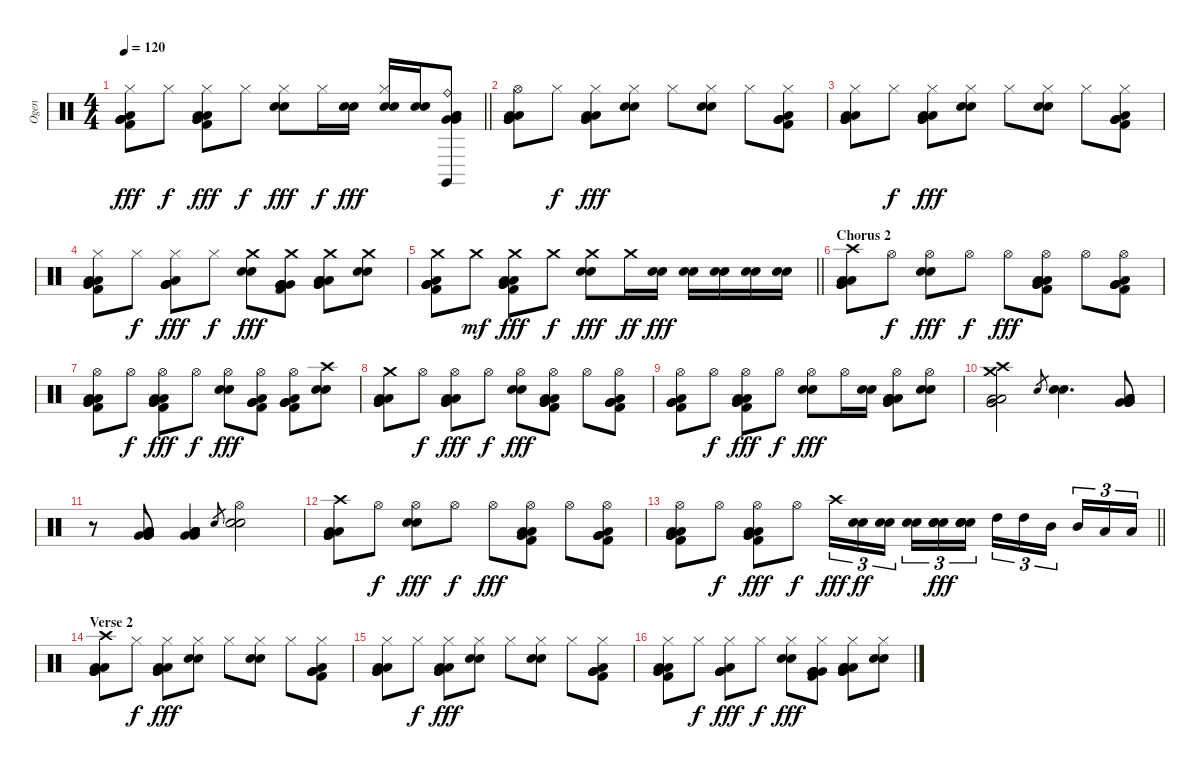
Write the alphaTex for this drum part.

\track ("Ogen" "Ogen") {instrument percussion}
\staff {score}
\articulation defaults
\ts (4 4)
\tempo 120
\clef neutral
\barLineRight lightlight
\ks c
("Hi-Hat (closed)" "Kick (hit) 2" "Very Low Tom (hit)" "Very Low Tom (hit)" "Low Floor Tom (hit)" "Very Low Tom (hit)").8{dy fff} "Hi-Hat (closed)".8{dy f} ("Hi-Hat (closed)" "Kick (hit) 2" "Very Low Tom (hit)" "Low Floor Tom (hit)" "Very Low Tom (hit)" "Low Floor Tom (hit)").8{dy fff} "Hi-Hat (closed)".8{dy f} ("Hi-Hat (closed)" "Snare (hit) 2" "Electric Snare (hit)").8{dy fff} "Hi-Hat (closed)".16{dy f} ("Snare (hit) 2" "Electric Snare (hit)").16{dy fff} ("Snare (hit) 2" "Electric Snare (hit)" "Hi-Hat (closed)").16 ("Electric Snare (hit)" "Snare (hit) 2").16 ("Ride (bell)" "Claves (hit)" "Very Low Tom (hit)" "Low Floor Tom (hit)" "Very Low Tom (hit)" "Low Floor Tom (hit)").8 |
("Hi-Hat (open)" "Very Low Tom (hit)" "Low Floor Tom (hit)" "Very Low Tom (hit)" "Low Floor Tom (hit)" "Very Low Tom (hit)").8 "Hi-Hat (closed)".8{dy f} ("Hi-Hat (closed)" "Very Low Tom (hit)" "Low Floor Tom (hit)" "Low Floor Tom (hit)" "Very Low Tom (hit)").8{dy fff} ("Hi-Hat (closed)" "Electric Snare (hit)" "Snare (hit) 2").8 "Hi-Hat (closed)".8 ("Hi-Hat (closed)" "Snare (hit) 2" "Electric Snare (hit)").8 "Hi-Hat (closed)".8 ("Hi-Hat (closed)" "Very Low Tom (hit)" "Kick (hit) 2" "Very Low Tom (hit)" "Low Floor Tom (hit)" "Very Low Tom (hit)").8 |
("Hi-Hat (closed)" "Very Low Tom (hit)" "Low Floor Tom (hit)" "Very Low Tom (hit)" "Low Floor Tom (hit)" "Very Low Tom (hit)").8 "Hi-Hat (closed)".8{dy f} ("Hi-Hat (closed)" "Very Low Tom (hit)" "Low Floor Tom (hit)" "Low Floor Tom (hit)" "Very Low Tom (hit)").8{dy fff} ("Hi-Hat (closed)" "Electric Snare (hit)" "Snare (hit) 2").8 "Hi-Hat (closed)".8 ("Hi-Hat (closed)" "Snare (hit) 2" "Electric Snare (hit)").8 "Hi-Hat (closed)".8 ("Hi-Hat (closed)" "Very Low Tom (hit)" "Kick (hit) 2" "Very Low Tom (hit)" "Low Floor Tom (hit)" "Very Low Tom (hit)").8 |
("Hi-Hat (closed)" "Very Low Tom (hit)" "Low Floor Tom (hit)" "Kick (hit) 2" "Very Low Tom (hit)" "Low Floor Tom (hit)").8 "Hi-Hat (closed)".8{dy f} ("Hi-Hat (closed)" "Very Low Tom (hit)" "Low Floor Tom (hit)" "Very Low Tom (hit)" "Very Low Tom (hit)" "Very Low Tom (hit)").8{dy fff} "Hi-Hat (closed)".8{dy f} ("Crash medium (hit)" "Snare (hit) 2" "Electric Snare (hit)").8{dy fff} ("Crash medium (hit)" "Very Low Tom (hit)" "Kick (hit) 2" "Very Low Tom (hit)" "Very Low Tom (hit)" "Very Low Tom (hit)").8 ("Crash medium (hit)" "Low Floor Tom (hit)" "Low Floor Tom (hit)" "Low Floor Tom (hit)" "Very Low Tom (hit)" "Very Low Tom (hit)").8 ("Crash medium (hit)" "Electric Snare (hit)" "Snare (hit) 2").8 |
\barLineRight lightlight
("Crash medium (hit)" "Kick (hit) 2" "Very Low Tom (hit)" "Very Low Tom (hit)" "Low Floor Tom (hit)" "Very Low Tom (hit)").8 "Crash medium (hit)".8{dy mf} ("Crash medium (hit)" "Kick (hit) 2" "Very Low Tom (hit)" "Low Floor Tom (hit)" "Very Low Tom (hit)" "Low Floor Tom (hit)").8{dy fff} "Crash medium (hit)".8{dy f} ("Crash medium (hit)" "Snare (hit) 2" "Electric Snare (hit)").8{dy fff} "Crash medium (hit)".16{dy ff} ("Snare (hit) 2" "Electric Snare (hit)").16{dy fff} ("Snare (hit) 2" "Electric Snare (hit)").16 ("Electric Snare (hit)" "Snare (hit) 2").16 ("Snare (hit) 2" "Electric Snare (hit)").16 ("Electric Snare (hit)" "Snare (hit) 2").16 |
\section ("" "Chorus 2")
("Crash high (hit)" "Very Low Tom (hit)" "Low Floor Tom (hit)" "Very Low Tom (hit)" "Low Floor Tom (hit)" "Very Low Tom (hit)").8 "Hi-Hat (open)".8{dy f} ("Hi-Hat (open)" "Electric Snare (hit)" "Snare (hit) 2").8{dy fff} "Hi-Hat (open)".8{dy f} "Hi-Hat (open)".8{dy fff} ("Hi-Hat (open)" "Very Low Tom (hit)" "Kick (hit) 2" "Low Floor Tom (hit)" "Very Low Tom (hit)" "Low Floor Tom (hit)").8 "Hi-Hat (open)".8 ("Hi-Hat (open)" "Very Low Tom (hit)" "Kick (hit) 2" "Very Low Tom (hit)" "Low Floor Tom (hit)" "Very Low Tom (hit)").8 |
("Hi-Hat (open)" "Kick (hit) 2" "Very Low Tom (hit)" "Low Floor Tom (hit)" "Very Low Tom (hit)" "Low Floor Tom (hit)").8 "Hi-Hat (open)".8{dy f} ("Hi-Hat (open)" "Kick (hit) 2" "Very Low Tom (hit)" "Low Floor Tom (hit)" "Very Low Tom (hit)" "Low Floor Tom (hit)").8{dy fff} "Hi-Hat (open)".8{dy f} ("Hi-Hat (open)" "Snare (hit) 2" "Electric Snare (hit)").8{dy fff} ("Hi-Hat (open)" "Kick (hit) 2" "Very Low Tom (hit)" "Very Low Tom (hit)" "Low Floor Tom (hit)" "Very Low Tom (hit)").8 ("Hi-Hat (open)" "Very Low Tom (hit)" "Kick (hit) 2" "Very Low Tom (hit)" "Low Floor Tom (hit)" "Very Low Tom (hit)").8 ("Crash high (hit)" "Snare (hit) 2" "Electric Snare (hit)").8 |
("Crash medium (hit)" "Very Low Tom (hit)" "Low Floor Tom (hit)" "Very Low Tom (hit)" "Low Floor Tom (hit)" "Very Low Tom (hit)").8 "Hi-Hat (open)".8{dy f} ("Hi-Hat (open)" "Very Low Tom (hit)" "Low Floor Tom (hit)" "Very Low Tom (hit)" "Low Floor Tom (hit)").8{dy fff} "Hi-Hat (open)".8{dy f} ("Hi-Hat (open)" "Snare (hit) 2" "Electric Snare (hit)").8{dy fff} ("Hi-Hat (open)" "Very Low Tom (hit)" "Kick (hit) 2" "Low Floor Tom (hit)" "Very Low Tom (hit)" "Low Floor Tom (hit)").8 "Hi-Hat (open)".8 ("Hi-Hat (open)" "Very Low Tom (hit)" "Kick (hit) 2" "Very Low Tom (hit)" "Low Floor Tom (hit)" "Very Low Tom (hit)").8 |
("Hi-Hat (open)" "Kick (hit) 2" "Very Low Tom (hit)" "Very Low Tom (hit)" "Low Floor Tom (hit)" "Very Low Tom (hit)").8 "Hi-Hat (open)".8{dy f} ("Hi-Hat (open)" "Kick (hit) 2" "Very Low Tom (hit)" "Low Floor Tom (hit)" "Very Low Tom (hit)" "Low Floor Tom (hit)").8{dy fff} "Hi-Hat (open)".8{dy f} ("Hi-Hat (open)" "Snare (hit) 2" "Electric Snare (hit)").8{dy fff} "Hi-Hat (open)".16 ("Snare (hit) 2" "Electric Snare (hit)").16 ("Low Floor Tom (hit)" "Low Floor Tom (hit)" "Low Floor Tom (hit)" "Very Low Tom (hit)" "Very Low Tom (hit)" "Hi-Hat (open)").8 ("Snare (hit) 2" "Electric Snare (hit)" "Hi-Hat (open)").8 |
("Crash high (hit)" "Crash medium (hit)" "Low Floor Tom (hit)" "Very Low Tom (hit)" "Low Floor Tom (hit)" "Very Low Tom (hit)").2 "Snare (hit) 2".8{gr} ("Snare (hit) 2" "Electric Snare (hit)").4{d} ("Very Low Tom (hit)" "Very Low Tom (hit)" "Low Floor Tom (hit)" "Very Low Tom (hit)" "Low Floor Tom (hit)").8 |
r.8 ("Very Low Tom (hit)" "Low Floor Tom (hit)" "Very Low Tom (hit)" "Low Floor Tom (hit)" "Very Low Tom (hit)" "Low Floor Tom (hit)").8 ("Low Floor Tom (hit)" "Very Low Tom (hit)" "Low Floor Tom (hit)" "Very Low Tom (hit)" "Low Floor Tom (hit)").4 "Electric Snare (hit)".8{gr} ("Electric Snare (hit)" "Snare (hit) 2" "Hi-Hat (open)").2 |
("Crash high (hit)" "Very Low Tom (hit)" "Low Floor Tom (hit)" "Very Low Tom (hit)" "Low Floor Tom (hit)" "Very Low Tom (hit)").8 "Hi-Hat (open)".8{dy f} ("Hi-Hat (open)" "Electric Snare (hit)" "Snare (hit) 2").8{dy fff} "Hi-Hat (open)".8{dy f} "Hi-Hat (open)".8{dy fff} ("Hi-Hat (open)" "Very Low Tom (hit)" "Kick (hit) 2" "Low Floor Tom (hit)" "Very Low Tom (hit)" "Low Floor Tom (hit)").8 "Hi-Hat (open)".8 ("Hi-Hat (open)" "Very Low Tom (hit)" "Kick (hit) 2" "Very Low Tom (hit)" "Low Floor Tom (hit)" "Very Low Tom (hit)").8 |
\barLineRight lightlight
("Hi-Hat (open)" "Kick (hit) 2" "Very Low Tom (hit)" "Low Floor Tom (hit)" "Very Low Tom (hit)" "Low Floor Tom (hit)").8 "Hi-Hat (open)".8{dy f} ("Hi-Hat (open)" "Kick (hit) 2" "Very Low Tom (hit)" "Low Floor Tom (hit)" "Very Low Tom (hit)" "Low Floor Tom (hit)").8{dy fff} "Hi-Hat (open)".8{dy f} "Crash high (hit)".16{tu (3 2) dy fff} ("Snare (hit) 2" "Electric Snare (hit)").16{tu (3 2) dy ff} ("Electric Snare (hit)" "Snare (hit) 2").16{tu (3 2) beam splitsecondary} ("Snare (hit) 2" "Electric Snare (hit)").16{tu (3 2)} ("Electric Snare (hit)" "Electric Snare (hit)" "Snare (hit) 2" "Snare (hit) 2").16{tu (3 2) dy fff} ("Electric Snare (hit)" "Snare (hit) 2" "Snare (hit) 2" "Electric Snare (hit)").16{tu (3 2)} "High Tom (hit)".16{tu (3 2)} "High Tom (hit)".16{tu (3 2)} "Mid Tom (hit)".16{tu (3 2) beam splitsecondary} "Mid Tom (hit)".16{tu (3 2)} "Low Tom (hit)".16{tu (3 2)} "Low Tom (hit)".16{tu (3 2)} |
\section ("" "Verse 2")
("Crash high (hit)" "Very Low Tom (hit)" "Low Floor Tom (hit)" "Very Low Tom (hit)" "Low Floor Tom (hit)" "Very Low Tom (hit)").8 "Hi-Hat (closed)".8{dy f} ("Hi-Hat (closed)" "Very Low Tom (hit)" "Low Floor Tom (hit)" "Low Floor Tom (hit)" "Very Low Tom (hit)").8{dy fff} ("Hi-Hat (closed)" "Electric Snare (hit)" "Snare (hit) 2").8 "Hi-Hat (closed)".8 ("Hi-Hat (closed)" "Snare (hit) 2" "Electric Snare (hit)").8 "Hi-Hat (closed)".8 ("Hi-Hat (closed)" "Very Low Tom (hit)" "Kick (hit) 2" "Very Low Tom (hit)" "Low Floor Tom (hit)" "Very Low Tom (hit)").8 |
("Hi-Hat (closed)" "Very Low Tom (hit)" "Low Floor Tom (hit)" "Very Low Tom (hit)" "Low Floor Tom (hit)" "Very Low Tom (hit)").8 "Hi-Hat (closed)".8{dy f} ("Hi-Hat (closed)" "Very Low Tom (hit)" "Low Floor Tom (hit)" "Low Floor Tom (hit)" "Very Low Tom (hit)").8{dy fff} ("Hi-Hat (closed)" "Electric Snare (hit)" "Snare (hit) 2").8 "Hi-Hat (closed)".8 ("Hi-Hat (closed)" "Snare (hit) 2" "Electric Snare (hit)").8 "Hi-Hat (closed)".8 ("Hi-Hat (closed)" "Very Low Tom (hit)" "Kick (hit) 2" "Very Low Tom (hit)" "Low Floor Tom (hit)" "Very Low Tom (hit)").8 |
("Hi-Hat (closed)" "Very Low Tom (hit)" "Low Floor Tom (hit)" "Kick (hit) 2" "Very Low Tom (hit)" "Low Floor Tom (hit)").8 "Hi-Hat (closed)".8{dy f} ("Hi-Hat (closed)" "Very Low Tom (hit)" "Low Floor Tom (hit)" "Very Low Tom (hit)" "Very Low Tom (hit)" "Very Low Tom (hit)").8{dy fff} "Hi-Hat (closed)".8{dy f} ("Hi-Hat (closed)" "Snare (hit) 2" "Electric Snare (hit)").8{dy fff} ("Hi-Hat (closed)" "Very Low Tom (hit)" "Kick (hit) 2" "Very Low Tom (hit)" "Very Low Tom (hit)" "Very Low Tom (hit)").8 ("Hi-Hat (closed)" "Low Floor Tom (hit)" "Low Floor Tom (hit)" "Low Floor Tom (hit)" "Very Low Tom (hit)" "Very Low Tom (hit)").8 ("Hi-Hat (closed)" "Electric Snare (hit)" "Snare (hit) 2").8
